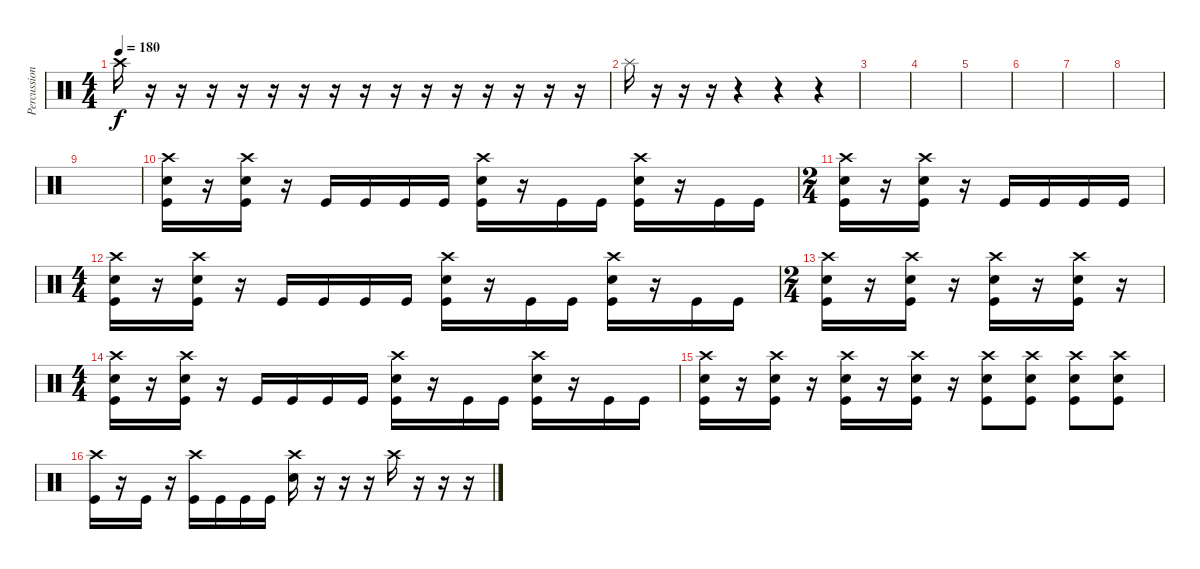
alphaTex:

\track ("Percussion" "Percussion") {instrument percussion}
\staff {score}
\articulation defaults
\ts (4 4)
\tempo 180
\clef neutral
\ks c "Crash high (hit)".16{dy f}
r.16 r.16 r.16 r.16 r.16 r.16 r.16 r.16 r.16 r.16 r.16 r.16 r.16 r.16 r.16 |
"Splash (hit)".16 r.16 r.16 r.16 r.4 r.4 r.4 |
|
|
|
|
|
|
|
("Crash high (hit)" "Electric Snare (hit)" "Kick (hit)").16 r.16 ("Crash high (hit)" "Electric Snare (hit)" "Kick (hit)").16 r.16 "Kick (hit)".16 "Kick (hit)".16 "Kick (hit)".16 "Kick (hit)".16 ("Crash high (hit)" "Electric Snare (hit)" "Kick (hit)").16 r.16 "Kick (hit)".16 "Kick (hit)".16 ("Crash high (hit)" "Electric Snare (hit)" "Kick (hit)").16 r.16 "Kick (hit)".16 "Kick (hit)".16 |
\ts (2 4)
("Crash high (hit)" "Electric Snare (hit)" "Kick (hit)").16 r.16 ("Crash high (hit)" "Electric Snare (hit)" "Kick (hit)").16 r.16 "Kick (hit)".16 "Kick (hit)".16 "Kick (hit)".16 "Kick (hit)".16 |
\ts (4 4)
("Crash high (hit)" "Electric Snare (hit)" "Kick (hit)").16 r.16 ("Crash high (hit)" "Electric Snare (hit)" "Kick (hit)").16 r.16 "Kick (hit)".16 "Kick (hit)".16 "Kick (hit)".16 "Kick (hit)".16 ("Crash high (hit)" "Electric Snare (hit)" "Kick (hit)").16 r.16 "Kick (hit)".16 "Kick (hit)".16 ("Crash high (hit)" "Electric Snare (hit)" "Kick (hit)").16 r.16 "Kick (hit)".16 "Kick (hit)".16 |
\ts (2 4)
("Crash high (hit)" "Electric Snare (hit)" "Kick (hit)").16 r.16 ("Crash high (hit)" "Electric Snare (hit)" "Kick (hit)").16 r.16 ("Crash high (hit)" "Electric Snare (hit)" "Kick (hit)").16 r.16 ("Crash high (hit)" "Electric Snare (hit)" "Kick (hit)").16 r.16 |
\ts (4 4)
("Crash high (hit)" "Electric Snare (hit)" "Kick (hit)").16 r.16 ("Crash high (hit)" "Electric Snare (hit)" "Kick (hit)").16 r.16 "Kick (hit)".16 "Kick (hit)".16 "Kick (hit)".16 "Kick (hit)".16 ("Crash high (hit)" "Electric Snare (hit)" "Kick (hit)").16 r.16 "Kick (hit)".16 "Kick (hit)".16 ("Crash high (hit)" "Electric Snare (hit)" "Kick (hit)").16 r.16 "Kick (hit)".16 "Kick (hit)".16 |
("Crash high (hit)" "Electric Snare (hit)" "Kick (hit)").16 r.16 ("Crash high (hit)" "Electric Snare (hit)" "Kick (hit)").16 r.16 ("Crash high (hit)" "Electric Snare (hit)" "Kick (hit)").16 r.16 ("Crash high (hit)" "Electric Snare (hit)" "Kick (hit)").16 r.16 ("Crash high (hit)" "Electric Snare (hit)" "Kick (hit)").8 ("Crash high (hit)" "Electric Snare (hit)" "Kick (hit)").8 ("Crash high (hit)" "Electric Snare (hit)" "Kick (hit)").8 ("Crash high (hit)" "Electric Snare (hit)" "Kick (hit)").8 |
("Crash high (hit)" "Kick (hit)").16 r.16 "Kick (hit)".16 r.16 ("Crash high (hit)" "Kick (hit)").16 "Kick (hit)".16 "Kick (hit)".16 "Kick (hit)".16 ("Crash high (hit)" "Electric Snare (hit)").16 r.16 r.16 r.16 "Crash high (hit)".16 r.16 r.16 r.16
